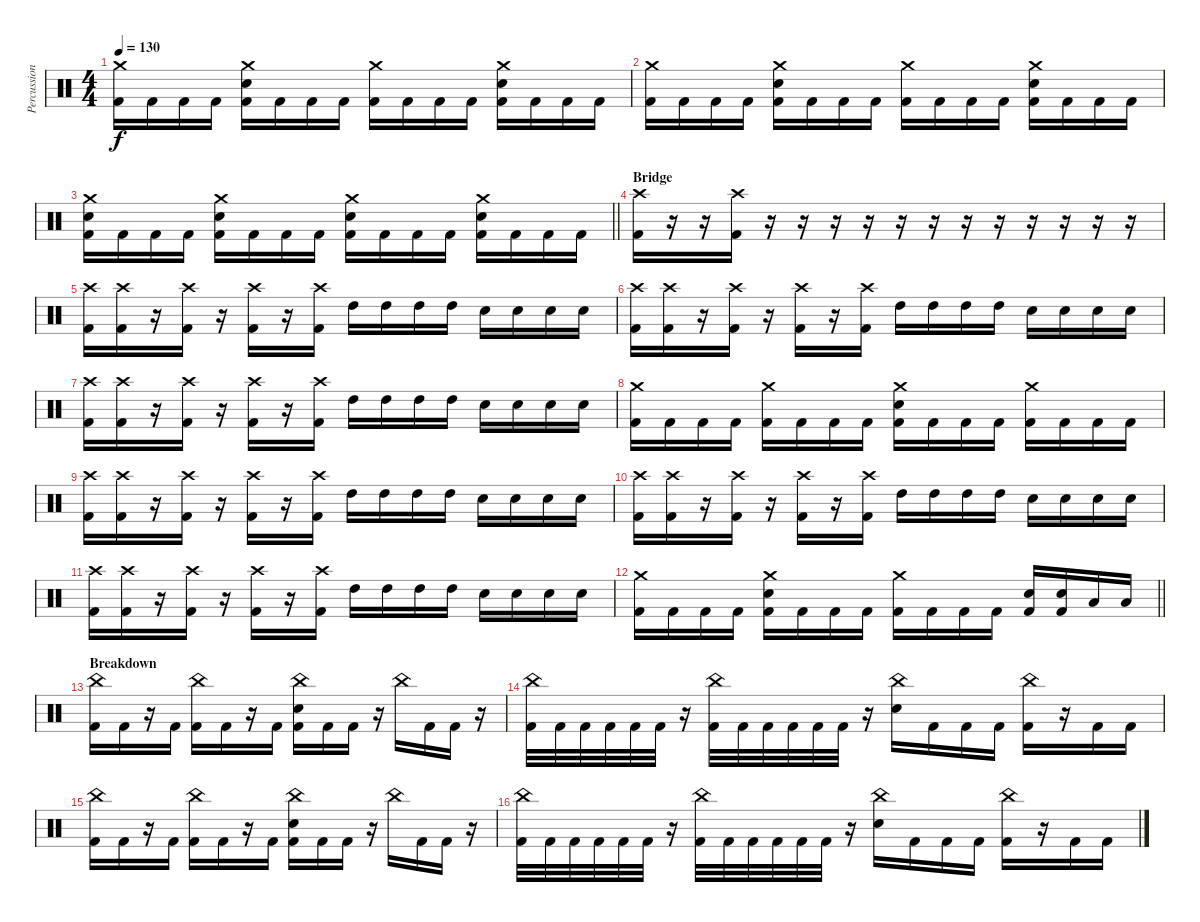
\track ("Percussion" "Percussion") {instrument percussion}
\staff {score}
\articulation defaults
\ts (4 4)
\tempo 130
\clef neutral
\ks c
("Crash medium (hit)" "Kick (hit) 2").16{dy f} "Kick (hit) 2".16 "Kick (hit) 2".16 "Kick (hit) 2".16 ("Crash medium (hit)" "Snare (hit) 2" "Kick (hit) 2").16 "Kick (hit) 2".16 "Kick (hit) 2".16 "Kick (hit) 2".16 ("Crash medium (hit)" "Kick (hit) 2").16 "Kick (hit) 2".16 "Kick (hit) 2".16 "Kick (hit) 2".16 ("Crash medium (hit)" "Snare (hit) 2" "Kick (hit) 2").16 "Kick (hit) 2".16 "Kick (hit) 2".16 "Kick (hit) 2".16 |
("Crash medium (hit)" "Kick (hit) 2").16 "Kick (hit) 2".16 "Kick (hit) 2".16 "Kick (hit) 2".16 ("Crash medium (hit)" "Snare (hit) 2" "Kick (hit) 2").16 "Kick (hit) 2".16 "Kick (hit) 2".16 "Kick (hit) 2".16 ("Crash medium (hit)" "Kick (hit) 2").16 "Kick (hit) 2".16 "Kick (hit) 2".16 "Kick (hit) 2".16 ("Crash medium (hit)" "Snare (hit) 2" "Kick (hit) 2").16 "Kick (hit) 2".16 "Kick (hit) 2".16 "Kick (hit) 2".16 |
\barLineRight lightlight
("Crash medium (hit)" "Snare (hit) 2" "Kick (hit) 2").16 "Kick (hit) 2".16 "Kick (hit) 2".16 "Kick (hit) 2".16 ("Crash medium (hit)" "Snare (hit) 2" "Kick (hit) 2").16 "Kick (hit) 2".16 "Kick (hit) 2".16 "Kick (hit) 2".16 ("Crash medium (hit)" "Snare (hit) 2" "Kick (hit) 2").16 "Kick (hit) 2".16 "Kick (hit) 2".16 "Kick (hit) 2".16 ("Crash medium (hit)" "Snare (hit) 2" "Kick (hit) 2").16 "Kick (hit) 2".16 "Kick (hit) 2".16 "Kick (hit) 2".16 |
\section ("" "Bridge")
("Crash high (hit)" "Kick (hit) 2").16 r.16 r.16 ("Crash high (hit)" "Kick (hit) 2").16 r.16 r.16 r.16 r.16 r.16 r.16 r.16 r.16 r.16 r.16 r.16 r.16 |
("Crash high (hit)" "Kick (hit) 2").16 ("Crash high (hit)" "Kick (hit) 2").16 r.16 ("Crash high (hit)" "Kick (hit) 2").16 r.16 ("Crash high (hit)" "Kick (hit) 2").16 r.16 ("Crash high (hit)" "Kick (hit) 2").16 "High Tom (hit)".16 "High Tom (hit)".16 "High Tom (hit)".16 "High Tom (hit)".16 "Snare (hit) 2".16 "Snare (hit) 2".16 "Snare (hit) 2".16 "Snare (hit) 2".16 |
("Crash high (hit)" "Kick (hit) 2").16 ("Crash high (hit)" "Kick (hit) 2").16 r.16 ("Crash high (hit)" "Kick (hit) 2").16 r.16 ("Crash high (hit)" "Kick (hit) 2").16 r.16 ("Crash high (hit)" "Kick (hit) 2").16 "High Tom (hit)".16 "High Tom (hit)".16 "High Tom (hit)".16 "High Tom (hit)".16 "Snare (hit) 2".16 "Snare (hit) 2".16 "Snare (hit) 2".16 "Snare (hit) 2".16 |
("Crash high (hit)" "Kick (hit) 2").16 ("Crash high (hit)" "Kick (hit) 2").16 r.16 ("Crash high (hit)" "Kick (hit) 2").16 r.16 ("Crash high (hit)" "Kick (hit) 2").16 r.16 ("Crash high (hit)" "Kick (hit) 2").16 "High Tom (hit)".16 "High Tom (hit)".16 "High Tom (hit)".16 "High Tom (hit)".16 "Snare (hit) 2".16 "Snare (hit) 2".16 "Snare (hit) 2".16 "Snare (hit) 2".16 |
("Crash medium (hit)" "Kick (hit) 2").16 "Kick (hit) 2".16 "Kick (hit) 2".16 "Kick (hit) 2".16 ("Crash medium (hit)" "Kick (hit) 2").16 "Kick (hit) 2".16 "Kick (hit) 2".16 "Kick (hit) 2".16 ("Crash medium (hit)" "Snare (hit) 2" "Kick (hit) 2").16 "Kick (hit) 2".16 "Kick (hit) 2".16 "Kick (hit) 2".16 ("Crash medium (hit)" "Kick (hit) 2").16 "Kick (hit) 2".16 "Kick (hit) 2".16 "Kick (hit) 2".16 |
("Crash high (hit)" "Kick (hit) 2").16 ("Crash high (hit)" "Kick (hit) 2").16 r.16 ("Crash high (hit)" "Kick (hit) 2").16 r.16 ("Crash high (hit)" "Kick (hit) 2").16 r.16 ("Crash high (hit)" "Kick (hit) 2").16 "High Tom (hit)".16 "High Tom (hit)".16 "High Tom (hit)".16 "High Tom (hit)".16 "Snare (hit) 2".16 "Snare (hit) 2".16 "Snare (hit) 2".16 "Snare (hit) 2".16 |
("Crash high (hit)" "Kick (hit) 2").16 ("Crash high (hit)" "Kick (hit) 2").16 r.16 ("Crash high (hit)" "Kick (hit) 2").16 r.16 ("Crash high (hit)" "Kick (hit) 2").16 r.16 ("Crash high (hit)" "Kick (hit) 2").16 "High Tom (hit)".16 "High Tom (hit)".16 "High Tom (hit)".16 "High Tom (hit)".16 "Snare (hit) 2".16 "Snare (hit) 2".16 "Snare (hit) 2".16 "Snare (hit) 2".16 |
("Crash high (hit)" "Kick (hit) 2").16 ("Crash high (hit)" "Kick (hit) 2").16 r.16 ("Crash high (hit)" "Kick (hit) 2").16 r.16 ("Crash high (hit)" "Kick (hit) 2").16 r.16 ("Crash high (hit)" "Kick (hit) 2").16 "High Tom (hit)".16 "High Tom (hit)".16 "High Tom (hit)".16 "High Tom (hit)".16 "Snare (hit) 2".16 "Snare (hit) 2".16 "Snare (hit) 2".16 "Snare (hit) 2".16 |
\barLineRight lightlight
("Crash medium (hit)" "Kick (hit) 2").16 "Kick (hit) 2".16 "Kick (hit) 2".16 "Kick (hit) 2".16 ("Crash medium (hit)" "Snare (hit) 2" "Kick (hit) 2").16 "Kick (hit) 2".16 "Kick (hit) 2".16 "Kick (hit) 2".16 ("Crash medium (hit)" "Kick (hit) 2").16 "Kick (hit) 2".16 "Kick (hit) 2".16 "Kick (hit) 2".16 ("Snare (hit) 2" "Kick (hit) 2").16 ("Snare (hit) 2" "Kick (hit) 2").16 "Low Tom (hit)".16 "Low Tom (hit)".16 |
\section ("" "Breakdown")
("China (hit)" "Kick (hit) 2").16 "Kick (hit) 2".16 r.16 "Kick (hit) 2".16 ("China (hit)" "Kick (hit) 2").16 "Kick (hit) 2".16 r.16 "Kick (hit) 2".16 ("China (hit)" "Snare (hit) 2" "Kick (hit) 2").16 "Kick (hit) 2".16 "Kick (hit) 2".16 r.16 "China (hit)".16 "Kick (hit) 2".16 "Kick (hit) 2".16 r.16 |
("China (hit)" "Kick (hit) 2").32 "Kick (hit) 2".32 "Kick (hit) 2".32 "Kick (hit) 2".32 "Kick (hit) 2".32 "Kick (hit) 2".32 r.16 ("China (hit)" "Kick (hit) 2").32 "Kick (hit) 2".32 "Kick (hit) 2".32 "Kick (hit) 2".32 "Kick (hit) 2".32 "Kick (hit) 2".32 r.16 ("China (hit)" "Snare (hit) 2").16 "Kick (hit) 2".16 "Kick (hit) 2".16 "Kick (hit) 2".16 ("China (hit)" "Kick (hit) 2").16 r.16 "Kick (hit) 2".16 "Kick (hit) 2".16 |
("China (hit)" "Kick (hit) 2").16 "Kick (hit) 2".16 r.16 "Kick (hit) 2".16 ("China (hit)" "Kick (hit) 2").16 "Kick (hit) 2".16 r.16 "Kick (hit) 2".16 ("China (hit)" "Snare (hit) 2" "Kick (hit) 2").16 "Kick (hit) 2".16 "Kick (hit) 2".16 r.16 "China (hit)".16 "Kick (hit) 2".16 "Kick (hit) 2".16 r.16 |
("China (hit)" "Kick (hit) 2").32 "Kick (hit) 2".32 "Kick (hit) 2".32 "Kick (hit) 2".32 "Kick (hit) 2".32 "Kick (hit) 2".32 r.16 ("China (hit)" "Kick (hit) 2").32 "Kick (hit) 2".32 "Kick (hit) 2".32 "Kick (hit) 2".32 "Kick (hit) 2".32 "Kick (hit) 2".32 r.16 ("China (hit)" "Snare (hit) 2").16 "Kick (hit) 2".16 "Kick (hit) 2".16 "Kick (hit) 2".16 ("China (hit)" "Kick (hit) 2").16 r.16 "Kick (hit) 2".16 "Kick (hit) 2".16
